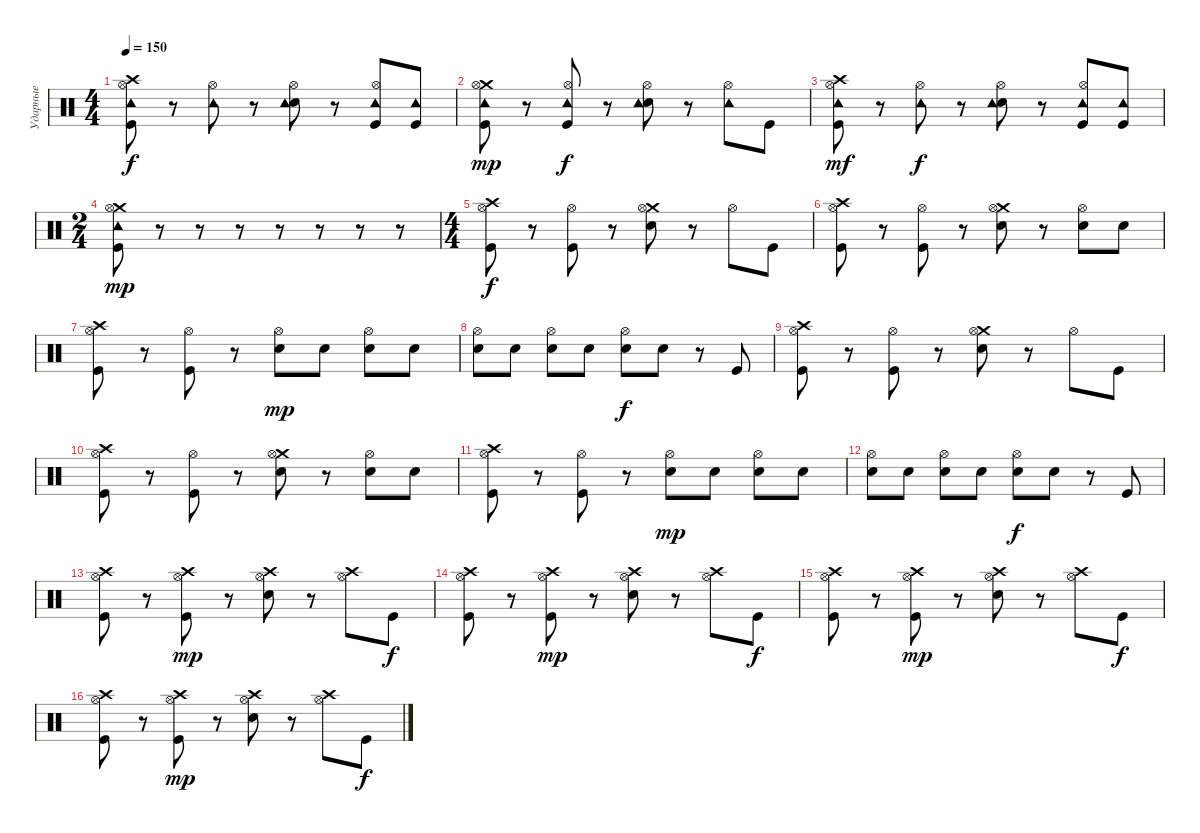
\track ("Ударные" "Ударные") {instrument percussion}
\staff {score}
\articulation defaults
\ts (4 4)
\tempo 150
\clef neutral
\ks c
("Crash high (hit)" "Kick (hit)" "Hi-Hat (open)" "Tambourine (hit)").8{dy f} r.8 ("Hi-Hat (open)" "Tambourine (hit)").8 r.8 ("Electric Snare (hit)" "Hi-Hat (open)" "Tambourine (hit)").8 r.8 ("Kick (hit)" "Hi-Hat (open)" "Tambourine (hit)").8 ("Kick (hit)" "Tambourine (hit)").8 |
("Crash medium (hit)" "Kick (hit)" "Hi-Hat (open)" "Tambourine (hit)").8{dy mp} r.8 ("Kick (hit)" "Hi-Hat (open)" "Tambourine (hit)").8{dy f} r.8 ("Electric Snare (hit)" "Hi-Hat (open)" "Tambourine (hit)").8 r.8 ("Hi-Hat (open)" "Tambourine (hit)").8 "Kick (hit)".8 |
("Crash high (hit)" "Kick (hit)" "Hi-Hat (open)" "Tambourine (hit)").8{dy mf} r.8 ("Hi-Hat (open)" "Tambourine (hit)").8{dy f} r.8 ("Electric Snare (hit)" "Hi-Hat (open)" "Tambourine (hit)").8 r.8 ("Kick (hit)" "Hi-Hat (open)" "Tambourine (hit)").8 ("Kick (hit)" "Tambourine (hit)").8 |
\ts (2 4)
("Crash medium (hit)" "Kick (hit)" "Hi-Hat (open)" "Tambourine (hit)").8{dy mp} r.8 r.8 r.8 r.8 r.8 r.8 r.8 |
\ts (4 4)
("Crash high (hit)" "Hi-Hat (open)" "Kick (hit)").8{dy f} r.8 ("Kick (hit)" "Hi-Hat (open)").8 r.8 ("Crash medium (hit)" "Electric Snare (hit)" "Hi-Hat (open)").8 r.8 "Hi-Hat (open)".8 "Kick (hit)".8 |
("Crash high (hit)" "Hi-Hat (open)" "Kick (hit)").8 r.8 ("Kick (hit)" "Hi-Hat (open)").8 r.8 ("Crash medium (hit)" "Electric Snare (hit)" "Hi-Hat (open)").8 r.8 ("Electric Snare (hit)" "Hi-Hat (open)").8 "Electric Snare (hit)".8 |
("Crash high (hit)" "Hi-Hat (open)" "Kick (hit)").8 r.8 ("Kick (hit)" "Hi-Hat (open)").8 r.8 ("Electric Snare (hit)" "Hi-Hat (open)").8{dy mp} "Electric Snare (hit)".8 ("Electric Snare (hit)" "Hi-Hat (open)").8 "Electric Snare (hit)".8 |
("Electric Snare (hit)" "Hi-Hat (open)").8 "Electric Snare (hit)".8 ("Electric Snare (hit)" "Hi-Hat (open)").8 "Electric Snare (hit)".8 ("Electric Snare (hit)" "Hi-Hat (open)").8{dy f} "Electric Snare (hit)".8 r.8 "Kick (hit)".8 |
("Crash high (hit)" "Hi-Hat (open)" "Kick (hit)").8 r.8 ("Kick (hit)" "Hi-Hat (open)").8 r.8 ("Crash medium (hit)" "Electric Snare (hit)" "Hi-Hat (open)").8 r.8 "Hi-Hat (open)".8 "Kick (hit)".8 |
("Crash high (hit)" "Hi-Hat (open)" "Kick (hit)").8 r.8 ("Kick (hit)" "Hi-Hat (open)").8 r.8 ("Crash medium (hit)" "Electric Snare (hit)" "Hi-Hat (open)").8 r.8 ("Electric Snare (hit)" "Hi-Hat (open)").8 "Electric Snare (hit)".8 |
("Crash high (hit)" "Hi-Hat (open)" "Kick (hit)").8 r.8 ("Kick (hit)" "Hi-Hat (open)").8 r.8 ("Electric Snare (hit)" "Hi-Hat (open)").8{dy mp} "Electric Snare (hit)".8 ("Electric Snare (hit)" "Hi-Hat (open)").8 "Electric Snare (hit)".8 |
("Electric Snare (hit)" "Hi-Hat (open)").8 "Electric Snare (hit)".8 ("Electric Snare (hit)" "Hi-Hat (open)").8 "Electric Snare (hit)".8 ("Electric Snare (hit)" "Hi-Hat (open)").8{dy f} "Electric Snare (hit)".8 r.8 "Kick (hit)".8 |
("Crash high (hit)" "Hi-Hat (open)" "Kick (hit)").8 r.8 ("Crash high (hit)" "Kick (hit)" "Hi-Hat (open)").8{dy mp} r.8 ("Crash high (hit)" "Electric Snare (hit)" "Hi-Hat (open)").8 r.8 ("Crash high (hit)" "Hi-Hat (open)").8 "Kick (hit)".8{dy f} |
("Crash high (hit)" "Hi-Hat (open)" "Kick (hit)").8 r.8 ("Crash high (hit)" "Kick (hit)" "Hi-Hat (open)").8{dy mp} r.8 ("Crash high (hit)" "Electric Snare (hit)" "Hi-Hat (open)").8 r.8 ("Crash high (hit)" "Hi-Hat (open)").8 "Kick (hit)".8{dy f} |
("Crash high (hit)" "Hi-Hat (open)" "Kick (hit)").8 r.8 ("Crash high (hit)" "Kick (hit)" "Hi-Hat (open)").8{dy mp} r.8 ("Crash high (hit)" "Electric Snare (hit)" "Hi-Hat (open)").8 r.8 ("Crash high (hit)" "Hi-Hat (open)").8 "Kick (hit)".8{dy f} |
("Crash high (hit)" "Hi-Hat (open)" "Kick (hit)").8 r.8 ("Crash high (hit)" "Kick (hit)" "Hi-Hat (open)").8{dy mp} r.8 ("Crash high (hit)" "Electric Snare (hit)" "Hi-Hat (open)").8 r.8 ("Crash high (hit)" "Hi-Hat (open)").8 "Kick (hit)".8{dy f}
